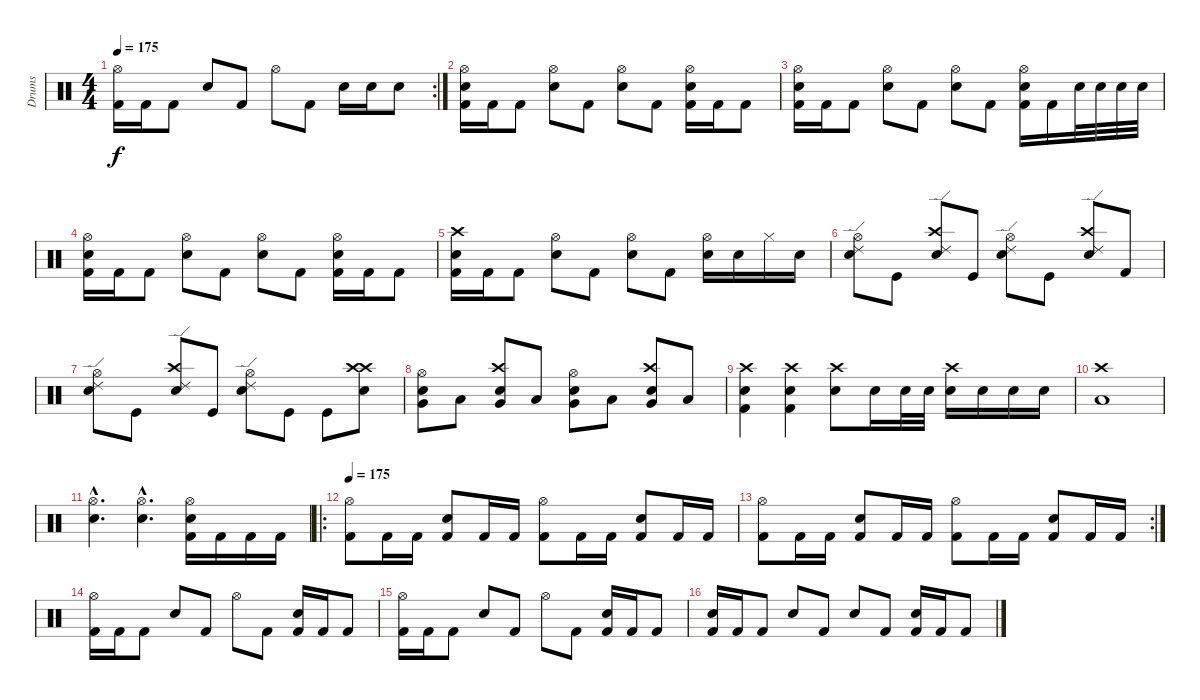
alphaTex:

\track ("Drums" "Drums") {instrument percussion}
\staff {score}
\articulation defaults
\rc 2
\ts (4 4)
\tempo 175
\clef neutral
\ks c
("Hi-Hat (open)" "Kick (hit) 2").16{dy f} "Kick (hit) 2".16 "Kick (hit) 2".8 "Electric Snare (hit)".8 "Kick (hit) 2".8 "Hi-Hat (open)".8 "Kick (hit) 2".8 "Electric Snare (hit)".16 "Electric Snare (hit)".16 "Electric Snare (hit)".8 |
("Electric Snare (hit)" "Kick (hit) 2" "Hi-Hat (open)").16 "Kick (hit) 2".16 "Kick (hit) 2".8 ("Electric Snare (hit)" "Hi-Hat (open)").8 "Kick (hit) 2".8 ("Electric Snare (hit)" "Hi-Hat (open)").8 "Kick (hit) 2".8 ("Electric Snare (hit)" "Kick (hit) 2" "Hi-Hat (open)").16 "Kick (hit) 2".16 "Kick (hit) 2".8 |
("Electric Snare (hit)" "Kick (hit) 2" "Hi-Hat (open)").16 "Kick (hit) 2".16 "Kick (hit) 2".8 ("Electric Snare (hit)" "Hi-Hat (open)").8 "Kick (hit) 2".8 ("Electric Snare (hit)" "Hi-Hat (open)").8 "Kick (hit) 2".8 ("Electric Snare (hit)" "Kick (hit) 2" "Hi-Hat (open)").16 "Kick (hit) 2".16 "Electric Snare (hit)".32 "Electric Snare (hit)".32 "Electric Snare (hit)".32 "Electric Snare (hit)".32 |
("Electric Snare (hit)" "Kick (hit) 2" "Hi-Hat (open)").16 "Kick (hit) 2".16 "Kick (hit) 2".8 ("Electric Snare (hit)" "Hi-Hat (open)").8 "Kick (hit) 2".8 ("Electric Snare (hit)" "Hi-Hat (open)").8 "Kick (hit) 2".8 ("Electric Snare (hit)" "Kick (hit) 2" "Hi-Hat (open)").16 "Kick (hit) 2".16 "Kick (hit) 2".8 |
("Electric Snare (hit)" "Kick (hit) 2" "Crash high (hit)").16 "Kick (hit) 2".16 "Kick (hit) 2".8 ("Electric Snare (hit)" "Hi-Hat (open)").8 "Kick (hit) 2".8 ("Electric Snare (hit)" "Hi-Hat (open)").8 "Kick (hit) 2".8 ("Electric Snare (hit)" "Hi-Hat (open)").16 "Electric Snare (hit)".16 "Hi-Hat (closed)".16 "Electric Snare (hit)".16 |
("Hi-Hat (open)" "Ride (edge) 2" "Electric Snare (hit)").8 "Kick (hit)".8 ("Crash high (hit)" "Ride (edge) 2" "Electric Snare (hit)").8 "Kick (hit)".8 ("Hi-Hat (open)" "Ride (edge) 2" "Electric Snare (hit)").8 "Kick (hit)".8 ("Crash high (hit)" "Ride (edge) 2" "Electric Snare (hit)").8 "Kick (hit) 2".8 |
("Hi-Hat (open)" "Ride (edge) 2" "Electric Snare (hit)").8 "Kick (hit)".8 ("Crash high (hit)" "Ride (edge) 2" "Electric Snare (hit)").8 "Kick (hit)".8 ("Hi-Hat (open)" "Ride (edge) 2" "Electric Snare (hit)").8 "Kick (hit)".8 "Kick (hit)".8 ("Crash high (hit)" "Crash high (hit)" "Electric Snare (hit)").8 |
("Hi-Hat (open)" "Electric Snare (hit)" "Very Low Tom (hit)").8 "Low Floor Tom (hit)".8 ("Crash high (hit)" "Electric Snare (hit)" "Very Low Tom (hit)").8 "Low Floor Tom (hit)".8 ("Hi-Hat (open)" "Electric Snare (hit)" "Very Low Tom (hit)").8 "Low Floor Tom (hit)".8 ("Crash high (hit)" "Electric Snare (hit)" "Very Low Tom (hit)").8 "Low Floor Tom (hit)".8 |
("Crash high (hit)" "Electric Snare (hit)" "Kick (hit) 2").4 ("Crash high (hit)" "Electric Snare (hit)" "Kick (hit) 2").4 ("Crash high (hit)" "Electric Snare (hit)").8 "Electric Snare (hit)".16 "Electric Snare (hit)".32 "Electric Snare (hit)".32 ("Crash high (hit)" "Electric Snare (hit)").16 "Electric Snare (hit)".16 "Electric Snare (hit)".16 "Electric Snare (hit)".16 |
("Crash high (hit)" "Low Floor Tom (hit)").1 |
("Hi-Hat (open)"{hac} "Snare (hit) 2"{hac}).4{d} ("Hi-Hat (open)"{hac} "Snare (hit) 2"{hac}).4{d} ("Hi-Hat (open)" "Snare (hit) 2" "Kick (hit) 2").16 "Kick (hit) 2".16 "Kick (hit) 2".16 "Kick (hit) 2".16 |
\ro
\tempo 175
("Hi-Hat (open)" "Kick (hit) 2").8 "Kick (hit) 2".16 "Kick (hit) 2".16 ("Electric Snare (hit)" "Kick (hit) 2").8 "Kick (hit) 2".16 "Kick (hit) 2".16 ("Hi-Hat (open)" "Kick (hit) 2").8 "Kick (hit) 2".16 "Kick (hit) 2".16 ("Electric Snare (hit)" "Kick (hit) 2").8 "Kick (hit) 2".16 "Kick (hit) 2".16 |
\rc 2
("Hi-Hat (open)" "Kick (hit) 2").8 "Kick (hit) 2".16 "Kick (hit) 2".16 ("Electric Snare (hit)" "Kick (hit) 2").8 "Kick (hit) 2".16 "Kick (hit) 2".16 ("Hi-Hat (open)" "Kick (hit) 2").8 "Kick (hit) 2".16 "Kick (hit) 2".16 ("Electric Snare (hit)" "Kick (hit) 2").8 "Kick (hit) 2".16 "Kick (hit) 2".16 |
("Hi-Hat (open)" "Kick (hit) 2").16 "Kick (hit) 2".16 "Kick (hit) 2".8 "Electric Snare (hit)".8 "Kick (hit) 2".8 "Hi-Hat (open)".8 "Kick (hit) 2".8 ("Electric Snare (hit)" "Kick (hit) 2").16 "Kick (hit) 2".16 "Kick (hit) 2".8 |
("Hi-Hat (open)" "Kick (hit) 2").16 "Kick (hit) 2".16 "Kick (hit) 2".8 "Electric Snare (hit)".8 "Kick (hit) 2".8 "Hi-Hat (open)".8 "Kick (hit) 2".8 ("Electric Snare (hit)" "Kick (hit) 2").16 "Kick (hit) 2".16 "Kick (hit) 2".8 |
("Electric Snare (hit)" "Kick (hit) 2").16 "Kick (hit) 2".16 "Kick (hit) 2".8 "Electric Snare (hit)".8 "Kick (hit) 2".8 "Electric Snare (hit)".8 "Kick (hit) 2".8 ("Electric Snare (hit)" "Kick (hit) 2").16 "Kick (hit) 2".16 "Kick (hit) 2".8
